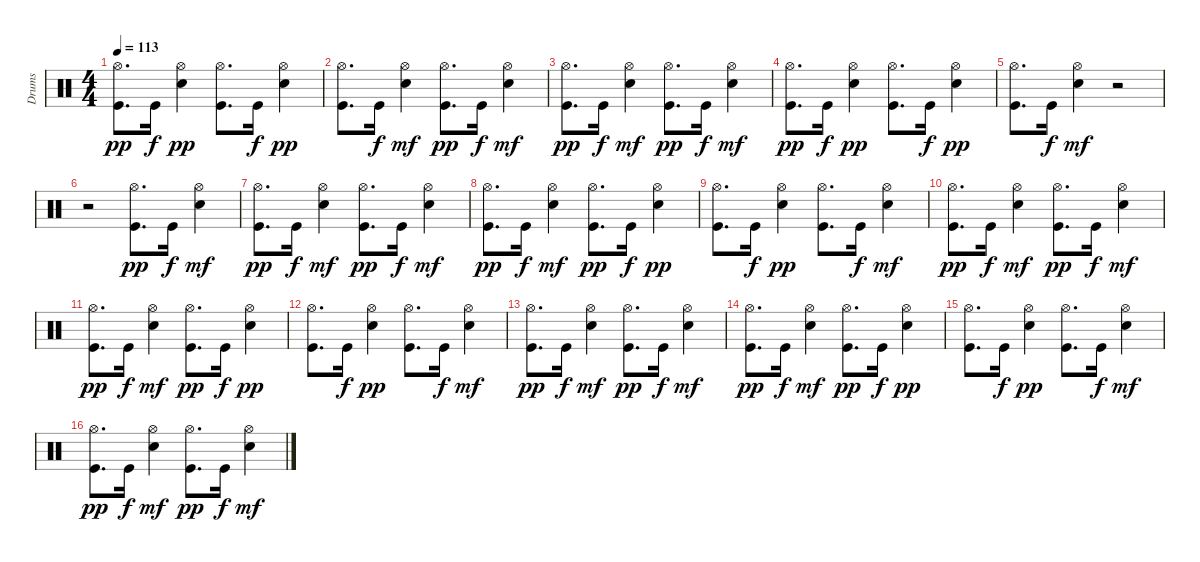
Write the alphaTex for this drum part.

\track ("Drums" "Drums") {instrument percussion}
\staff {score}
\articulation defaults
\ts (4 4)
\tempo 113
\clef neutral
\ks c
("Hi-Hat (open)" "Kick (hit)").8{d dy pp} "Kick (hit)".16{dy f} ("Electric Snare (hit)" "Hi-Hat (open)").4{dy pp} ("Kick (hit)" "Hi-Hat (open)").8{d} "Kick (hit)".16{dy f} ("Electric Snare (hit)" "Hi-Hat (open)").4{dy pp} |
("Hi-Hat (open)" "Kick (hit)").8{d} "Kick (hit)".16{dy f} ("Hi-Hat (open)" "Electric Snare (hit)").4{dy mf} ("Hi-Hat (open)" "Kick (hit)").8{d dy pp} "Kick (hit)".16{dy f} ("Hi-Hat (open)" "Electric Snare (hit)").4{dy mf} |
("Hi-Hat (open)" "Kick (hit)").8{d dy pp} "Kick (hit)".16{dy f} ("Hi-Hat (open)" "Electric Snare (hit)").4{dy mf} ("Hi-Hat (open)" "Kick (hit)").8{d dy pp} "Kick (hit)".16{dy f} ("Hi-Hat (open)" "Electric Snare (hit)").4{dy mf} |
("Hi-Hat (open)" "Kick (hit)").8{d dy pp} "Kick (hit)".16{dy f} ("Electric Snare (hit)" "Hi-Hat (open)").4{dy pp} ("Kick (hit)" "Hi-Hat (open)").8{d} "Kick (hit)".16{dy f} ("Electric Snare (hit)" "Hi-Hat (open)").4{dy pp} |
("Hi-Hat (open)" "Kick (hit)").8{d} "Kick (hit)".16{dy f} ("Hi-Hat (open)" "Electric Snare (hit)").4{dy mf} r.2 |
r.2 ("Hi-Hat (open)" "Kick (hit)").8{d dy pp} "Kick (hit)".16{dy f} ("Hi-Hat (open)" "Electric Snare (hit)").4{dy mf} |
("Hi-Hat (open)" "Kick (hit)").8{d dy pp} "Kick (hit)".16{dy f} ("Hi-Hat (open)" "Electric Snare (hit)").4{dy mf} ("Hi-Hat (open)" "Kick (hit)").8{d dy pp} "Kick (hit)".16{dy f} ("Hi-Hat (open)" "Electric Snare (hit)").4{dy mf} |
("Hi-Hat (open)" "Kick (hit)").8{d dy pp} "Kick (hit)".16{dy f} ("Hi-Hat (open)" "Electric Snare (hit)").4{dy mf} ("Hi-Hat (open)" "Kick (hit)").8{d dy pp} "Kick (hit)".16{dy f} ("Electric Snare (hit)" "Hi-Hat (open)").4{dy pp} |
("Kick (hit)" "Hi-Hat (open)").8{d} "Kick (hit)".16{dy f} ("Electric Snare (hit)" "Hi-Hat (open)").4{dy pp} ("Hi-Hat (open)" "Kick (hit)").8{d} "Kick (hit)".16{dy f} ("Hi-Hat (open)" "Electric Snare (hit)").4{dy mf} |
("Hi-Hat (open)" "Kick (hit)").8{d dy pp} "Kick (hit)".16{dy f} ("Hi-Hat (open)" "Electric Snare (hit)").4{dy mf} ("Hi-Hat (open)" "Kick (hit)").8{d dy pp} "Kick (hit)".16{dy f} ("Hi-Hat (open)" "Electric Snare (hit)").4{dy mf} |
("Hi-Hat (open)" "Kick (hit)").8{d dy pp} "Kick (hit)".16{dy f} ("Hi-Hat (open)" "Electric Snare (hit)").4{dy mf} ("Hi-Hat (open)" "Kick (hit)").8{d dy pp} "Kick (hit)".16{dy f} ("Electric Snare (hit)" "Hi-Hat (open)").4{dy pp} |
("Kick (hit)" "Hi-Hat (open)").8{d} "Kick (hit)".16{dy f} ("Electric Snare (hit)" "Hi-Hat (open)").4{dy pp} ("Hi-Hat (open)" "Kick (hit)").8{d} "Kick (hit)".16{dy f} ("Hi-Hat (open)" "Electric Snare (hit)").4{dy mf} |
("Hi-Hat (open)" "Kick (hit)").8{d dy pp} "Kick (hit)".16{dy f} ("Hi-Hat (open)" "Electric Snare (hit)").4{dy mf} ("Hi-Hat (open)" "Kick (hit)").8{d dy pp} "Kick (hit)".16{dy f} ("Hi-Hat (open)" "Electric Snare (hit)").4{dy mf} |
("Hi-Hat (open)" "Kick (hit)").8{d dy pp} "Kick (hit)".16{dy f} ("Hi-Hat (open)" "Electric Snare (hit)").4{dy mf} ("Hi-Hat (open)" "Kick (hit)").8{d dy pp} "Kick (hit)".16{dy f} ("Electric Snare (hit)" "Hi-Hat (open)").4{dy pp} |
("Kick (hit)" "Hi-Hat (open)").8{d} "Kick (hit)".16{dy f} ("Electric Snare (hit)" "Hi-Hat (open)").4{dy pp} ("Hi-Hat (open)" "Kick (hit)").8{d} "Kick (hit)".16{dy f} ("Hi-Hat (open)" "Electric Snare (hit)").4{dy mf} |
("Hi-Hat (open)" "Kick (hit)").8{d dy pp} "Kick (hit)".16{dy f} ("Hi-Hat (open)" "Electric Snare (hit)").4{dy mf} ("Hi-Hat (open)" "Kick (hit)").8{d dy pp} "Kick (hit)".16{dy f} ("Hi-Hat (open)" "Electric Snare (hit)").4{dy mf}
